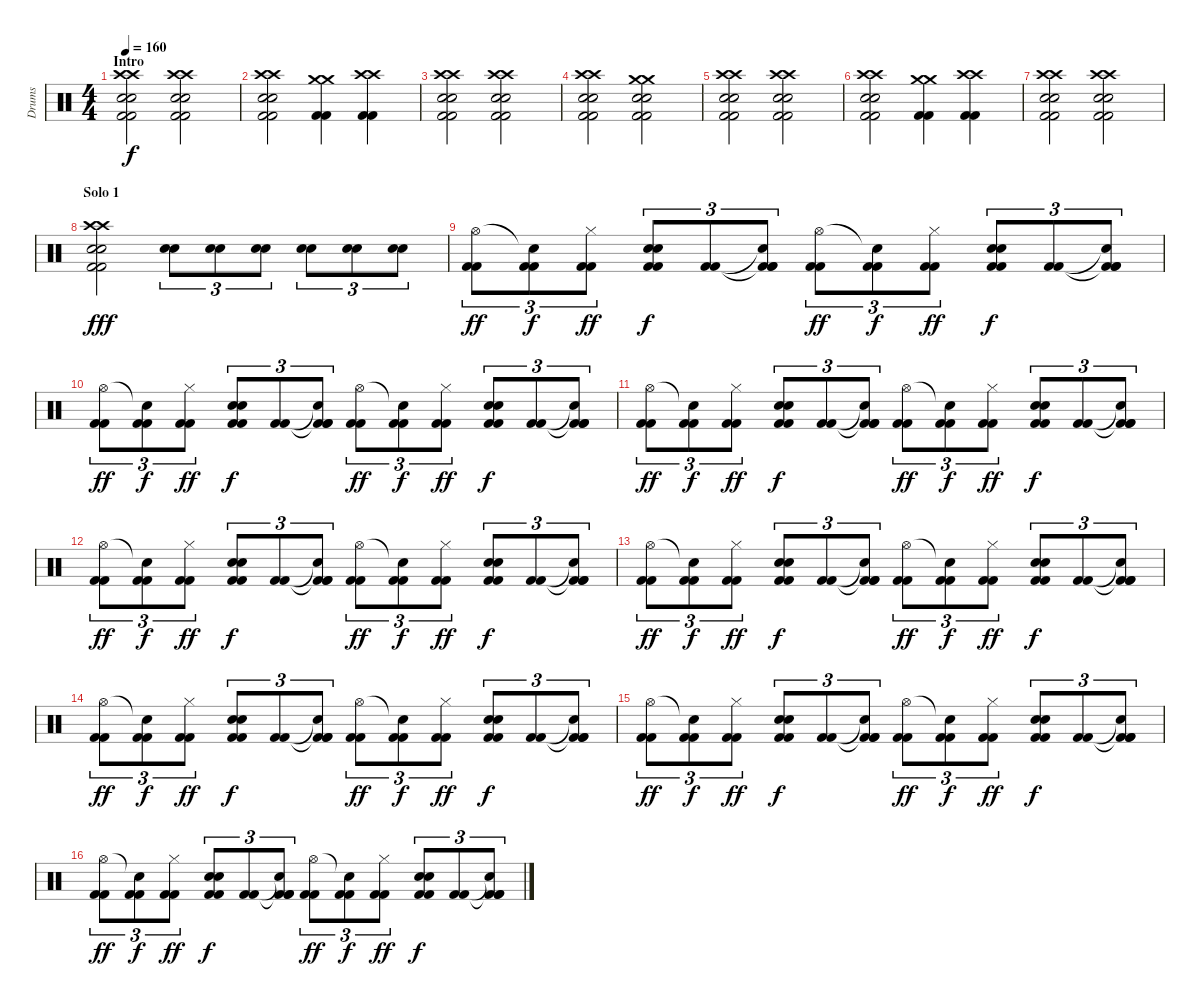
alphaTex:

\track ("Drums" "Drums") {instrument percussion}
\staff {score}
\articulation defaults
\ts (4 4)
\section ("" "Intro")
\tempo 160
\clef neutral
\ks c
("Crash high (hit)" "Crash high (hit)" "Snare (hit) 2" "Snare (hit) 2" "Kick (hit) 2" "Kick (hit) 2").2{dy f} ("Crash high (hit)" "Crash high (hit)" "Snare (hit) 2" "Snare (hit) 2" "Kick (hit) 2" "Kick (hit) 2").2 |
("Crash high (hit)" "Crash high (hit)" "Snare (hit) 2" "Snare (hit) 2" "Kick (hit) 2" "Kick (hit) 2").2 ("Crash medium (hit)" "Crash medium (hit)" "Kick (hit) 2" "Kick (hit) 2").4 ("Crash high (hit)" "Crash high (hit)" "Kick (hit) 2" "Kick (hit) 2").4 |
("Crash high (hit)" "Crash high (hit)" "Snare (hit) 2" "Snare (hit) 2" "Kick (hit) 2" "Kick (hit) 2").2 ("Crash high (hit)" "Crash high (hit)" "Snare (hit) 2" "Snare (hit) 2" "Kick (hit) 2" "Kick (hit) 2").2 |
("Crash high (hit)" "Crash high (hit)" "Snare (hit) 2" "Snare (hit) 2" "Kick (hit) 2" "Kick (hit) 2").2 ("Crash medium (hit)" "Crash medium (hit)" "Snare (hit) 2" "Snare (hit) 2" "Kick (hit) 2" "Kick (hit) 2").2 |
("Crash high (hit)" "Crash high (hit)" "Snare (hit) 2" "Snare (hit) 2" "Kick (hit) 2" "Kick (hit) 2").2 ("Crash high (hit)" "Crash high (hit)" "Snare (hit) 2" "Snare (hit) 2" "Kick (hit) 2" "Kick (hit) 2").2 |
("Crash high (hit)" "Crash high (hit)" "Snare (hit) 2" "Snare (hit) 2" "Kick (hit) 2" "Kick (hit) 2").2 ("Crash medium (hit)" "Crash medium (hit)" "Kick (hit) 2" "Kick (hit) 2").4 ("Crash high (hit)" "Crash high (hit)" "Kick (hit) 2" "Kick (hit) 2").4 |
("Crash high (hit)" "Crash high (hit)" "Snare (hit) 2" "Snare (hit) 2" "Kick (hit) 2" "Kick (hit) 2").2 ("Crash high (hit)" "Crash high (hit)" "Snare (hit) 2" "Snare (hit) 2" "Kick (hit) 2" "Kick (hit) 2").2 |
\section ("" "Solo 1")
("Crash high (hit)" "Crash high (hit)" "Snare (hit) 2" "Snare (hit) 2" "Kick (hit) 2" "Kick (hit) 2").2{dy fff} ("Snare (hit) 2" "Snare (hit) 2").8{tu (3 2)} ("Snare (hit) 2" "Snare (hit) 2").8{tu (3 2)} ("Snare (hit) 2" "Snare (hit) 2").8{tu (3 2)} ("Snare (hit) 2" "Snare (hit) 2").8{tu (3 2)} ("Snare (hit) 2" "Snare (hit) 2").8{tu (3 2)} ("Snare (hit) 2" "Snare (hit) 2").8{tu (3 2)} |
("Hi-Hat (open)" "Kick (hit) 2" "Kick (hit) 2").8{tu (3 2) dy ff} ("Snare (hit)"{t} "Kick (hit) 2" "Kick (hit) 2").8{tu (3 2) dy f} ("Hi-Hat (closed)" "Kick (hit) 2" "Kick (hit) 2").8{tu (3 2) dy ff} ("Electric Snare (hit)" "Electric Snare (hit)" "Kick (hit) 2" "Kick (hit) 2").8{tu (3 2) dy f} ("Kick (hit) 2" "Kick (hit) 2").8{tu (3 2)} ("Snare (hit)"{t} "Kick (hit) 2"{t} "Kick (hit) 2" "Kick (hit) 2").8{tu (3 2)} ("Hi-Hat (open)" "Kick (hit) 2" "Kick (hit) 2").8{tu (3 2) dy ff} ("Snare (hit)"{t} "Kick (hit) 2" "Kick (hit) 2").8{tu (3 2) dy f} ("Hi-Hat (closed)" "Kick (hit) 2" "Kick (hit) 2").8{tu (3 2) dy ff} ("Electric Snare (hit)" "Electric Snare (hit)" "Kick (hit) 2" "Kick (hit) 2").8{tu (3 2) dy f} ("Kick (hit) 2" "Kick (hit) 2").8{tu (3 2)} ("Snare (hit)"{t} "Kick (hit) 2"{t} "Kick (hit) 2" "Kick (hit) 2").8{tu (3 2)} |
("Hi-Hat (open)" "Kick (hit) 2" "Kick (hit) 2").8{tu (3 2) dy ff} ("Snare (hit)"{t} "Kick (hit) 2" "Kick (hit) 2").8{tu (3 2) dy f} ("Hi-Hat (closed)" "Kick (hit) 2" "Kick (hit) 2").8{tu (3 2) dy ff} ("Electric Snare (hit)" "Electric Snare (hit)" "Kick (hit) 2" "Kick (hit) 2").8{tu (3 2) dy f} ("Kick (hit) 2" "Kick (hit) 2").8{tu (3 2)} ("Snare (hit)"{t} "Kick (hit) 2"{t} "Kick (hit) 2" "Kick (hit) 2").8{tu (3 2)} ("Hi-Hat (open)" "Kick (hit) 2" "Kick (hit) 2").8{tu (3 2) dy ff} ("Snare (hit)"{t} "Kick (hit) 2" "Kick (hit) 2").8{tu (3 2) dy f} ("Hi-Hat (closed)" "Kick (hit) 2" "Kick (hit) 2").8{tu (3 2) dy ff} ("Electric Snare (hit)" "Electric Snare (hit)" "Kick (hit) 2" "Kick (hit) 2").8{tu (3 2) dy f} ("Kick (hit) 2" "Kick (hit) 2").8{tu (3 2)} ("Snare (hit)"{t} "Kick (hit) 2"{t} "Kick (hit) 2" "Kick (hit) 2").8{tu (3 2)} |
("Hi-Hat (open)" "Kick (hit) 2" "Kick (hit) 2").8{tu (3 2) dy ff} ("Snare (hit)"{t} "Kick (hit) 2" "Kick (hit) 2").8{tu (3 2) dy f} ("Hi-Hat (closed)" "Kick (hit) 2" "Kick (hit) 2").8{tu (3 2) dy ff} ("Electric Snare (hit)" "Electric Snare (hit)" "Kick (hit) 2" "Kick (hit) 2").8{tu (3 2) dy f} ("Kick (hit) 2" "Kick (hit) 2").8{tu (3 2)} ("Snare (hit)"{t} "Kick (hit) 2"{t} "Kick (hit) 2" "Kick (hit) 2").8{tu (3 2)} ("Hi-Hat (open)" "Kick (hit) 2" "Kick (hit) 2").8{tu (3 2) dy ff} ("Snare (hit)"{t} "Kick (hit) 2" "Kick (hit) 2").8{tu (3 2) dy f} ("Hi-Hat (closed)" "Kick (hit) 2" "Kick (hit) 2").8{tu (3 2) dy ff} ("Electric Snare (hit)" "Electric Snare (hit)" "Kick (hit) 2" "Kick (hit) 2").8{tu (3 2) dy f} ("Kick (hit) 2" "Kick (hit) 2").8{tu (3 2)} ("Snare (hit)"{t} "Kick (hit) 2"{t} "Kick (hit) 2" "Kick (hit) 2").8{tu (3 2)} |
("Hi-Hat (open)" "Kick (hit) 2" "Kick (hit) 2").8{tu (3 2) dy ff} ("Snare (hit)"{t} "Kick (hit) 2" "Kick (hit) 2").8{tu (3 2) dy f} ("Hi-Hat (closed)" "Kick (hit) 2" "Kick (hit) 2").8{tu (3 2) dy ff} ("Electric Snare (hit)" "Electric Snare (hit)" "Kick (hit) 2" "Kick (hit) 2").8{tu (3 2) dy f} ("Kick (hit) 2" "Kick (hit) 2").8{tu (3 2)} ("Snare (hit)"{t} "Kick (hit) 2"{t} "Kick (hit) 2" "Kick (hit) 2").8{tu (3 2)} ("Hi-Hat (open)" "Kick (hit) 2" "Kick (hit) 2").8{tu (3 2) dy ff} ("Snare (hit)"{t} "Kick (hit) 2" "Kick (hit) 2").8{tu (3 2) dy f} ("Hi-Hat (closed)" "Kick (hit) 2" "Kick (hit) 2").8{tu (3 2) dy ff} ("Electric Snare (hit)" "Electric Snare (hit)" "Kick (hit) 2" "Kick (hit) 2").8{tu (3 2) dy f} ("Kick (hit) 2" "Kick (hit) 2").8{tu (3 2)} ("Snare (hit)"{t} "Kick (hit) 2"{t} "Kick (hit) 2" "Kick (hit) 2").8{tu (3 2)} |
("Hi-Hat (open)" "Kick (hit) 2" "Kick (hit) 2").8{tu (3 2) dy ff} ("Snare (hit)"{t} "Kick (hit) 2" "Kick (hit) 2").8{tu (3 2) dy f} ("Hi-Hat (closed)" "Kick (hit) 2" "Kick (hit) 2").8{tu (3 2) dy ff} ("Electric Snare (hit)" "Electric Snare (hit)" "Kick (hit) 2" "Kick (hit) 2").8{tu (3 2) dy f} ("Kick (hit) 2" "Kick (hit) 2").8{tu (3 2)} ("Snare (hit)"{t} "Kick (hit) 2"{t} "Kick (hit) 2" "Kick (hit) 2").8{tu (3 2)} ("Hi-Hat (open)" "Kick (hit) 2" "Kick (hit) 2").8{tu (3 2) dy ff} ("Snare (hit)"{t} "Kick (hit) 2" "Kick (hit) 2").8{tu (3 2) dy f} ("Hi-Hat (closed)" "Kick (hit) 2" "Kick (hit) 2").8{tu (3 2) dy ff} ("Electric Snare (hit)" "Electric Snare (hit)" "Kick (hit) 2" "Kick (hit) 2").8{tu (3 2) dy f} ("Kick (hit) 2" "Kick (hit) 2").8{tu (3 2)} ("Snare (hit)"{t} "Kick (hit) 2"{t} "Kick (hit) 2" "Kick (hit) 2").8{tu (3 2)} |
("Hi-Hat (open)" "Kick (hit) 2" "Kick (hit) 2").8{tu (3 2) dy ff} ("Snare (hit)"{t} "Kick (hit) 2" "Kick (hit) 2").8{tu (3 2) dy f} ("Hi-Hat (closed)" "Kick (hit) 2" "Kick (hit) 2").8{tu (3 2) dy ff} ("Electric Snare (hit)" "Electric Snare (hit)" "Kick (hit) 2" "Kick (hit) 2").8{tu (3 2) dy f} ("Kick (hit) 2" "Kick (hit) 2").8{tu (3 2)} ("Snare (hit)"{t} "Kick (hit) 2"{t} "Kick (hit) 2" "Kick (hit) 2").8{tu (3 2)} ("Hi-Hat (open)" "Kick (hit) 2" "Kick (hit) 2").8{tu (3 2) dy ff} ("Snare (hit)"{t} "Kick (hit) 2" "Kick (hit) 2").8{tu (3 2) dy f} ("Hi-Hat (closed)" "Kick (hit) 2" "Kick (hit) 2").8{tu (3 2) dy ff} ("Electric Snare (hit)" "Electric Snare (hit)" "Kick (hit) 2" "Kick (hit) 2").8{tu (3 2) dy f} ("Kick (hit) 2" "Kick (hit) 2").8{tu (3 2)} ("Snare (hit)"{t} "Kick (hit) 2"{t} "Kick (hit) 2" "Kick (hit) 2").8{tu (3 2)} |
("Hi-Hat (open)" "Kick (hit) 2" "Kick (hit) 2").8{tu (3 2) dy ff} ("Snare (hit)"{t} "Kick (hit) 2" "Kick (hit) 2").8{tu (3 2) dy f} ("Hi-Hat (closed)" "Kick (hit) 2" "Kick (hit) 2").8{tu (3 2) dy ff} ("Electric Snare (hit)" "Electric Snare (hit)" "Kick (hit) 2" "Kick (hit) 2").8{tu (3 2) dy f} ("Kick (hit) 2" "Kick (hit) 2").8{tu (3 2)} ("Snare (hit)"{t} "Kick (hit) 2"{t} "Kick (hit) 2" "Kick (hit) 2").8{tu (3 2)} ("Hi-Hat (open)" "Kick (hit) 2" "Kick (hit) 2").8{tu (3 2) dy ff} ("Snare (hit)"{t} "Kick (hit) 2" "Kick (hit) 2").8{tu (3 2) dy f} ("Hi-Hat (closed)" "Kick (hit) 2" "Kick (hit) 2").8{tu (3 2) dy ff} ("Electric Snare (hit)" "Electric Snare (hit)" "Kick (hit) 2" "Kick (hit) 2").8{tu (3 2) dy f} ("Kick (hit) 2" "Kick (hit) 2").8{tu (3 2)} ("Snare (hit)"{t} "Kick (hit) 2"{t} "Kick (hit) 2" "Kick (hit) 2").8{tu (3 2)} |
("Hi-Hat (open)" "Kick (hit) 2" "Kick (hit) 2").8{tu (3 2) dy ff} ("Snare (hit)"{t} "Kick (hit) 2" "Kick (hit) 2").8{tu (3 2) dy f} ("Hi-Hat (closed)" "Kick (hit) 2" "Kick (hit) 2").8{tu (3 2) dy ff} ("Electric Snare (hit)" "Electric Snare (hit)" "Kick (hit) 2" "Kick (hit) 2").8{tu (3 2) dy f} ("Kick (hit) 2" "Kick (hit) 2").8{tu (3 2)} ("Snare (hit)"{t} "Kick (hit) 2"{t} "Kick (hit) 2" "Kick (hit) 2").8{tu (3 2)} ("Hi-Hat (open)" "Kick (hit) 2" "Kick (hit) 2").8{tu (3 2) dy ff} ("Snare (hit)"{t} "Kick (hit) 2" "Kick (hit) 2").8{tu (3 2) dy f} ("Hi-Hat (closed)" "Kick (hit) 2" "Kick (hit) 2").8{tu (3 2) dy ff} ("Electric Snare (hit)" "Electric Snare (hit)" "Kick (hit) 2" "Kick (hit) 2").8{tu (3 2) dy f} ("Kick (hit) 2" "Kick (hit) 2").8{tu (3 2)} ("Snare (hit)"{t} "Kick (hit) 2"{t} "Kick (hit) 2" "Kick (hit) 2").8{tu (3 2)}
